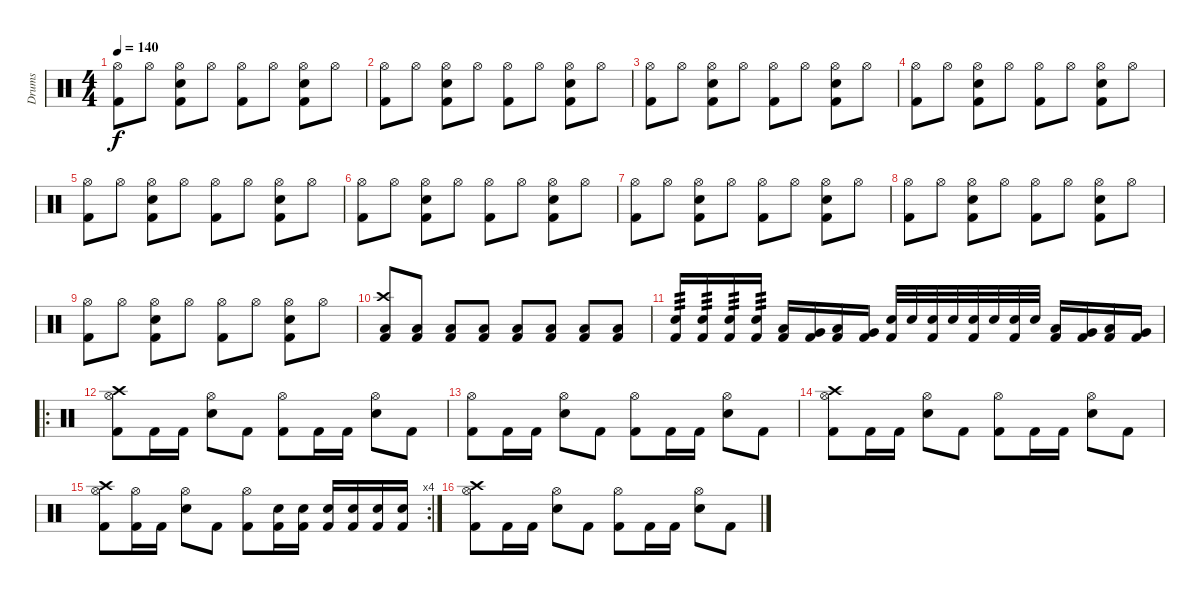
\track ("Drums" "Drums") {instrument percussion}
\staff {score}
\articulation defaults
\ts (4 4)
\tempo 140
\clef neutral
\ks c
("Hi-Hat (open)" "Kick (hit) 2").8{dy f} "Hi-Hat (open)".8 ("Electric Snare (hit)" "Hi-Hat (open)" "Kick (hit) 2").8 "Hi-Hat (open)".8 ("Hi-Hat (open)" "Kick (hit) 2").8 "Hi-Hat (open)".8 ("Electric Snare (hit)" "Hi-Hat (open)" "Kick (hit) 2").8 "Hi-Hat (open)".8 |
("Hi-Hat (open)" "Kick (hit) 2").8 "Hi-Hat (open)".8 ("Electric Snare (hit)" "Hi-Hat (open)" "Kick (hit) 2").8 "Hi-Hat (open)".8 ("Hi-Hat (open)" "Kick (hit) 2").8 "Hi-Hat (open)".8 ("Electric Snare (hit)" "Hi-Hat (open)" "Kick (hit) 2").8 "Hi-Hat (open)".8 |
("Hi-Hat (open)" "Kick (hit) 2").8 "Hi-Hat (open)".8 ("Electric Snare (hit)" "Hi-Hat (open)" "Kick (hit) 2").8 "Hi-Hat (open)".8 ("Hi-Hat (open)" "Kick (hit) 2").8 "Hi-Hat (open)".8 ("Electric Snare (hit)" "Hi-Hat (open)" "Kick (hit) 2").8 "Hi-Hat (open)".8 |
("Hi-Hat (open)" "Kick (hit) 2").8 "Hi-Hat (open)".8 ("Electric Snare (hit)" "Hi-Hat (open)" "Kick (hit) 2").8 "Hi-Hat (open)".8 ("Hi-Hat (open)" "Kick (hit) 2").8 "Hi-Hat (open)".8 ("Electric Snare (hit)" "Hi-Hat (open)" "Kick (hit) 2").8 "Hi-Hat (open)".8 |
("Hi-Hat (open)" "Kick (hit) 2").8 "Hi-Hat (open)".8 ("Electric Snare (hit)" "Hi-Hat (open)" "Kick (hit) 2").8 "Hi-Hat (open)".8 ("Hi-Hat (open)" "Kick (hit) 2").8 "Hi-Hat (open)".8 ("Electric Snare (hit)" "Hi-Hat (open)" "Kick (hit) 2").8 "Hi-Hat (open)".8 |
("Hi-Hat (open)" "Kick (hit) 2").8 "Hi-Hat (open)".8 ("Electric Snare (hit)" "Hi-Hat (open)" "Kick (hit) 2").8 "Hi-Hat (open)".8 ("Hi-Hat (open)" "Kick (hit) 2").8 "Hi-Hat (open)".8 ("Electric Snare (hit)" "Hi-Hat (open)" "Kick (hit) 2").8 "Hi-Hat (open)".8 |
("Hi-Hat (open)" "Kick (hit) 2").8 "Hi-Hat (open)".8 ("Electric Snare (hit)" "Hi-Hat (open)" "Kick (hit) 2").8 "Hi-Hat (open)".8 ("Hi-Hat (open)" "Kick (hit) 2").8 "Hi-Hat (open)".8 ("Electric Snare (hit)" "Hi-Hat (open)" "Kick (hit) 2").8 "Hi-Hat (open)".8 |
("Hi-Hat (open)" "Kick (hit) 2").8 "Hi-Hat (open)".8 ("Electric Snare (hit)" "Hi-Hat (open)" "Kick (hit) 2").8 "Hi-Hat (open)".8 ("Hi-Hat (open)" "Kick (hit) 2").8 "Hi-Hat (open)".8 ("Electric Snare (hit)" "Hi-Hat (open)" "Kick (hit) 2").8 "Hi-Hat (open)".8 |
("Hi-Hat (open)" "Kick (hit) 2").8 "Hi-Hat (open)".8 ("Electric Snare (hit)" "Hi-Hat (open)" "Kick (hit) 2").8 "Hi-Hat (open)".8 ("Hi-Hat (open)" "Kick (hit) 2").8 "Hi-Hat (open)".8 ("Electric Snare (hit)" "Hi-Hat (open)" "Kick (hit) 2").8 "Hi-Hat (open)".8 |
("Crash high (hit)" "Low Floor Tom (hit)" "Kick (hit) 2").8 ("Low Floor Tom (hit)" "Kick (hit) 2").8 ("Low Floor Tom (hit)" "Kick (hit) 2").8 ("Low Floor Tom (hit)" "Kick (hit) 2").8 ("Low Floor Tom (hit)" "Kick (hit) 2").8 ("Low Floor Tom (hit)" "Kick (hit) 2").8 ("Low Floor Tom (hit)" "Kick (hit) 2").8 ("Low Floor Tom (hit)" "Kick (hit) 2").8 |
("Electric Snare (hit)" "Kick (hit) 2").16{tp 3} ("Electric Snare (hit)" "Kick (hit) 2").16{tp 3} ("Electric Snare (hit)" "Kick (hit) 2").16{tp 3} ("Electric Snare (hit)" "Kick (hit) 2").16{tp 3} ("Low Floor Tom (hit)" "Kick (hit) 2").16 ("Very Low Tom (hit)" "Kick (hit) 2").16 ("Low Tom (hit)" "Kick (hit) 2").16 ("Very Low Tom (hit)" "Kick (hit) 2").16 ("Electric Snare (hit)" "Kick (hit) 2").32 "Electric Snare (hit)".32 ("Electric Snare (hit)" "Kick (hit) 2").32 "Electric Snare (hit)".32 ("Electric Snare (hit)" "Kick (hit) 2").32 "Electric Snare (hit)".32 ("Electric Snare (hit)" "Kick (hit) 2").32 "Electric Snare (hit)".32 ("Low Floor Tom (hit)" "Kick (hit) 2").16 ("Very Low Tom (hit)" "Kick (hit) 2").16 ("Low Tom (hit)" "Kick (hit) 2").16 ("Very Low Tom (hit)" "Kick (hit) 2").16 |
\ro
("Crash high (hit)" "Hi-Hat (open)" "Kick (hit) 2").8 "Kick (hit) 2".16 "Kick (hit) 2".16 ("Hi-Hat (open)" "Electric Snare (hit)").8 "Kick (hit) 2".8 ("Hi-Hat (open)" "Kick (hit) 2").8 "Kick (hit) 2".16 "Kick (hit) 2".16 ("Hi-Hat (open)" "Electric Snare (hit)").8 "Kick (hit) 2".8 |
("Hi-Hat (open)" "Kick (hit) 2").8 "Kick (hit) 2".16 "Kick (hit) 2".16 ("Hi-Hat (open)" "Electric Snare (hit)").8 "Kick (hit) 2".8 ("Hi-Hat (open)" "Kick (hit) 2").8 "Kick (hit) 2".16 "Kick (hit) 2".16 ("Hi-Hat (open)" "Electric Snare (hit)").8 "Kick (hit) 2".8 |
("Crash high (hit)" "Hi-Hat (open)" "Kick (hit) 2").8 "Kick (hit) 2".16 "Kick (hit) 2".16 ("Hi-Hat (open)" "Electric Snare (hit)").8 "Kick (hit) 2".8 ("Hi-Hat (open)" "Kick (hit) 2").8 "Kick (hit) 2".16 "Kick (hit) 2".16 ("Hi-Hat (open)" "Electric Snare (hit)").8 "Kick (hit) 2".8 |
\rc 4
("Crash high (hit)" "Hi-Hat (open)" "Kick (hit) 2").8 ("Hi-Hat (open)" "Kick (hit) 2").16 "Kick (hit) 2".16 ("Hi-Hat (open)" "Electric Snare (hit)").8 "Kick (hit) 2".8 ("Hi-Hat (open)" "Kick (hit) 2").8 ("Electric Snare (hit)" "Kick (hit) 2").16 ("Electric Snare (hit)" "Kick (hit) 2").16 ("Electric Snare (hit)" "Kick (hit) 2").16 ("Electric Snare (hit)" "Kick (hit) 2").16 ("Electric Snare (hit)" "Kick (hit) 2").16 ("Electric Snare (hit)" "Kick (hit) 2").16 |
("Crash high (hit)" "Hi-Hat (open)" "Kick (hit) 2").8 "Kick (hit) 2".16 "Kick (hit) 2".16 ("Hi-Hat (open)" "Electric Snare (hit)").8 "Kick (hit) 2".8 ("Hi-Hat (open)" "Kick (hit) 2").8 "Kick (hit) 2".16 "Kick (hit) 2".16 ("Hi-Hat (open)" "Electric Snare (hit)").8 "Kick (hit) 2".8
